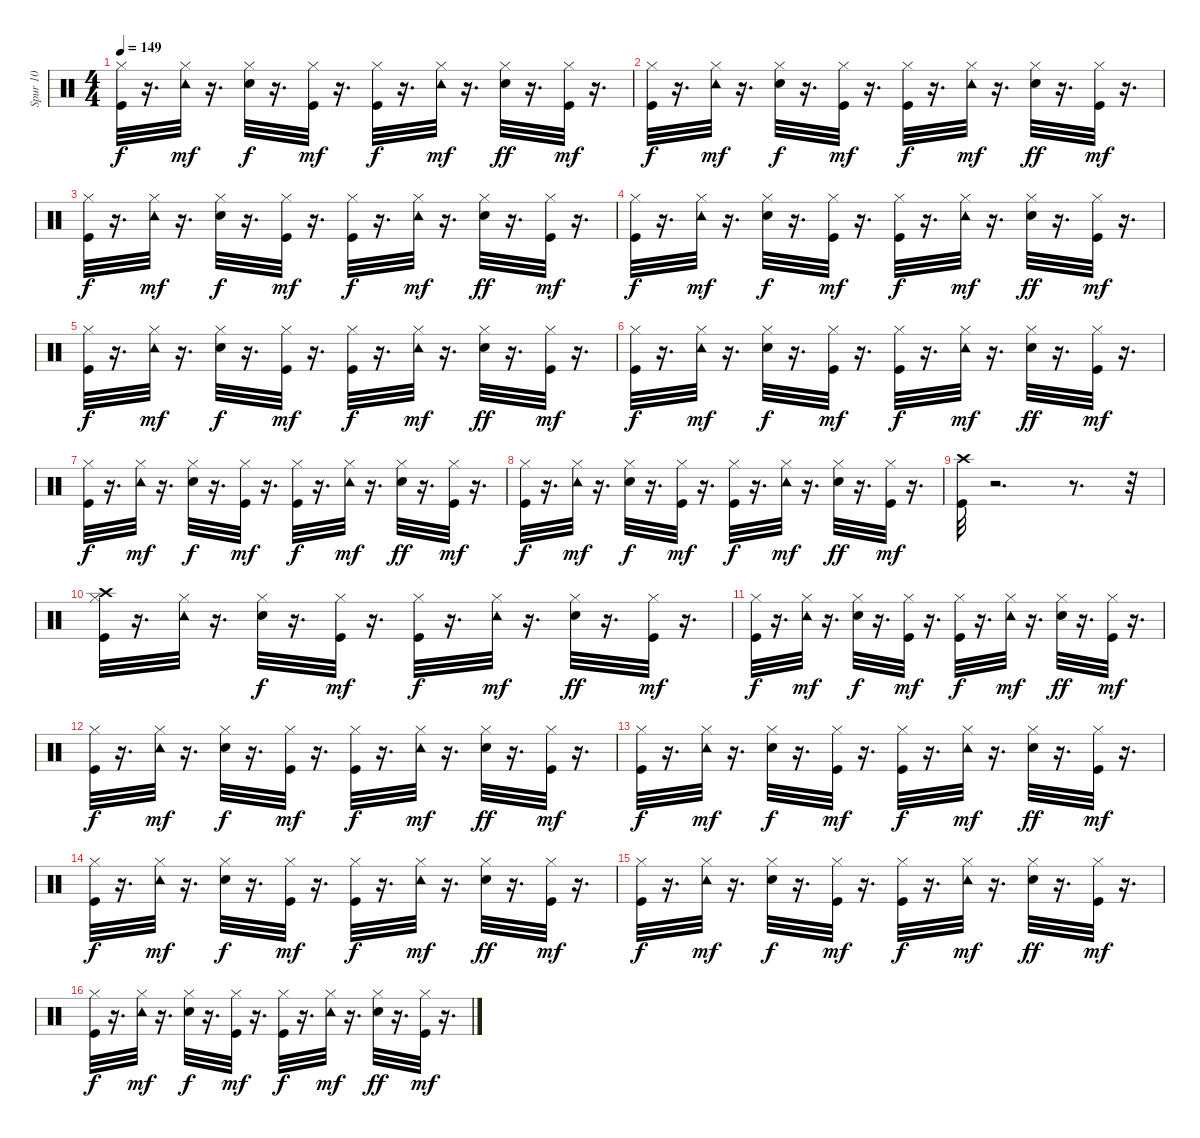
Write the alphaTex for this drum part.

\track ("Spur 10" "Spur 10") {instrument percussion}
\staff {score}
\articulation defaults
\ts (4 4)
\tempo 149
\clef neutral
\ks c
("Kick (hit)" "Hi-Hat (closed)").32{dy f} r.16{d} ("Hi-Hat (closed)" "Tambourine (hit)").32{dy mf} r.16{d} ("Snare (hit) 2" "Hi-Hat (closed)").32{dy f} r.16{d} ("Kick (hit)" "Hi-Hat (closed)").32{dy mf} r.16{d} ("Kick (hit)" "Hi-Hat (closed)").32{dy f} r.16{d} ("Hi-Hat (closed)" "Tambourine (hit)").32{dy mf} r.16{d} ("Snare (hit) 2" "Hi-Hat (closed)").32{dy ff} r.16{d} ("Kick (hit)" "Hi-Hat (closed)").32{dy mf} r.16{d} |
("Kick (hit)" "Hi-Hat (closed)").32{dy f} r.16{d} ("Hi-Hat (closed)" "Tambourine (hit)").32{dy mf} r.16{d} ("Snare (hit) 2" "Hi-Hat (closed)").32{dy f} r.16{d} ("Kick (hit)" "Hi-Hat (closed)").32{dy mf} r.16{d} ("Kick (hit)" "Hi-Hat (closed)").32{dy f} r.16{d} ("Hi-Hat (closed)" "Tambourine (hit)").32{dy mf} r.16{d} ("Snare (hit) 2" "Hi-Hat (closed)").32{dy ff} r.16{d} ("Kick (hit)" "Hi-Hat (closed)").32{dy mf} r.16{d} |
("Kick (hit)" "Hi-Hat (closed)").32{dy f} r.16{d} ("Hi-Hat (closed)" "Tambourine (hit)").32{dy mf} r.16{d} ("Snare (hit) 2" "Hi-Hat (closed)").32{dy f} r.16{d} ("Kick (hit)" "Hi-Hat (closed)").32{dy mf} r.16{d} ("Kick (hit)" "Hi-Hat (closed)").32{dy f} r.16{d} ("Hi-Hat (closed)" "Tambourine (hit)").32{dy mf} r.16{d} ("Snare (hit) 2" "Hi-Hat (closed)").32{dy ff} r.16{d} ("Kick (hit)" "Hi-Hat (closed)").32{dy mf} r.16{d} |
("Kick (hit)" "Hi-Hat (closed)").32{dy f} r.16{d} ("Hi-Hat (closed)" "Tambourine (hit)").32{dy mf} r.16{d} ("Snare (hit) 2" "Hi-Hat (closed)").32{dy f} r.16{d} ("Kick (hit)" "Hi-Hat (closed)").32{dy mf} r.16{d} ("Kick (hit)" "Hi-Hat (closed)").32{dy f} r.16{d} ("Hi-Hat (closed)" "Tambourine (hit)").32{dy mf} r.16{d} ("Snare (hit) 2" "Hi-Hat (closed)").32{dy ff} r.16{d} ("Kick (hit)" "Hi-Hat (closed)").32{dy mf} r.16{d} |
("Kick (hit)" "Hi-Hat (closed)").32{dy f} r.16{d} ("Hi-Hat (closed)" "Tambourine (hit)").32{dy mf} r.16{d} ("Snare (hit) 2" "Hi-Hat (closed)").32{dy f} r.16{d} ("Kick (hit)" "Hi-Hat (closed)").32{dy mf} r.16{d} ("Kick (hit)" "Hi-Hat (closed)").32{dy f} r.16{d} ("Hi-Hat (closed)" "Tambourine (hit)").32{dy mf} r.16{d} ("Snare (hit) 2" "Hi-Hat (closed)").32{dy ff} r.16{d} ("Kick (hit)" "Hi-Hat (closed)").32{dy mf} r.16{d} |
("Kick (hit)" "Hi-Hat (closed)").32{dy f} r.16{d} ("Hi-Hat (closed)" "Tambourine (hit)").32{dy mf} r.16{d} ("Snare (hit) 2" "Hi-Hat (closed)").32{dy f} r.16{d} ("Kick (hit)" "Hi-Hat (closed)").32{dy mf} r.16{d} ("Kick (hit)" "Hi-Hat (closed)").32{dy f} r.16{d} ("Hi-Hat (closed)" "Tambourine (hit)").32{dy mf} r.16{d} ("Snare (hit) 2" "Hi-Hat (closed)").32{dy ff} r.16{d} ("Kick (hit)" "Hi-Hat (closed)").32{dy mf} r.16{d} |
("Kick (hit)" "Hi-Hat (closed)").32{dy f} r.16{d} ("Hi-Hat (closed)" "Tambourine (hit)").32{dy mf} r.16{d} ("Snare (hit) 2" "Hi-Hat (closed)").32{dy f} r.16{d} ("Kick (hit)" "Hi-Hat (closed)").32{dy mf} r.16{d} ("Kick (hit)" "Hi-Hat (closed)").32{dy f} r.16{d} ("Hi-Hat (closed)" "Tambourine (hit)").32{dy mf} r.16{d} ("Snare (hit) 2" "Hi-Hat (closed)").32{dy ff} r.16{d} ("Kick (hit)" "Hi-Hat (closed)").32{dy mf} r.16{d} |
("Kick (hit)" "Hi-Hat (closed)").32{dy f} r.16{d} ("Hi-Hat (closed)" "Tambourine (hit)").32{dy mf} r.16{d} ("Snare (hit) 2" "Hi-Hat (closed)").32{dy f} r.16{d} ("Kick (hit)" "Hi-Hat (closed)").32{dy mf} r.16{d} ("Kick (hit)" "Hi-Hat (closed)").32{dy f} r.16{d} ("Hi-Hat (closed)" "Tambourine (hit)").32{dy mf} r.16{d} ("Snare (hit) 2" "Hi-Hat (closed)").32{dy ff} r.16{d} ("Kick (hit)" "Hi-Hat (closed)").32{dy mf} r.16{d} |
("Kick (hit)" "Crash high (hit)").32 r.2{d} r.8{d} r.32 |
("Kick (hit)" "Hi-Hat (closed)" "Crash high (hit)").32 r.16{d} ("Hi-Hat (closed)" "Tambourine (hit)").32 r.16{d} ("Snare (hit) 2" "Hi-Hat (closed)").32{dy f} r.16{d} ("Kick (hit)" "Hi-Hat (closed)").32{dy mf} r.16{d} ("Kick (hit)" "Hi-Hat (closed)").32{dy f} r.16{d} ("Hi-Hat (closed)" "Tambourine (hit)").32{dy mf} r.16{d} ("Snare (hit) 2" "Hi-Hat (closed)").32{dy ff} r.16{d} ("Kick (hit)" "Hi-Hat (closed)").32{dy mf} r.16{d} |
("Kick (hit)" "Hi-Hat (closed)").32{dy f} r.16{d} ("Hi-Hat (closed)" "Tambourine (hit)").32{dy mf} r.16{d} ("Snare (hit) 2" "Hi-Hat (closed)").32{dy f} r.16{d} ("Kick (hit)" "Hi-Hat (closed)").32{dy mf} r.16{d} ("Kick (hit)" "Hi-Hat (closed)").32{dy f} r.16{d} ("Hi-Hat (closed)" "Tambourine (hit)").32{dy mf} r.16{d} ("Snare (hit) 2" "Hi-Hat (closed)").32{dy ff} r.16{d} ("Kick (hit)" "Hi-Hat (closed)").32{dy mf} r.16{d} |
("Kick (hit)" "Hi-Hat (closed)").32{dy f} r.16{d} ("Hi-Hat (closed)" "Tambourine (hit)").32{dy mf} r.16{d} ("Snare (hit) 2" "Hi-Hat (closed)").32{dy f} r.16{d} ("Kick (hit)" "Hi-Hat (closed)").32{dy mf} r.16{d} ("Kick (hit)" "Hi-Hat (closed)").32{dy f} r.16{d} ("Hi-Hat (closed)" "Tambourine (hit)").32{dy mf} r.16{d} ("Snare (hit) 2" "Hi-Hat (closed)").32{dy ff} r.16{d} ("Kick (hit)" "Hi-Hat (closed)").32{dy mf} r.16{d} |
("Kick (hit)" "Hi-Hat (closed)").32{dy f} r.16{d} ("Hi-Hat (closed)" "Tambourine (hit)").32{dy mf} r.16{d} ("Snare (hit) 2" "Hi-Hat (closed)").32{dy f} r.16{d} ("Kick (hit)" "Hi-Hat (closed)").32{dy mf} r.16{d} ("Kick (hit)" "Hi-Hat (closed)").32{dy f} r.16{d} ("Hi-Hat (closed)" "Tambourine (hit)").32{dy mf} r.16{d} ("Snare (hit) 2" "Hi-Hat (closed)").32{dy ff} r.16{d} ("Kick (hit)" "Hi-Hat (closed)").32{dy mf} r.16{d} |
("Kick (hit)" "Hi-Hat (closed)").32{dy f} r.16{d} ("Hi-Hat (closed)" "Tambourine (hit)").32{dy mf} r.16{d} ("Snare (hit) 2" "Hi-Hat (closed)").32{dy f} r.16{d} ("Kick (hit)" "Hi-Hat (closed)").32{dy mf} r.16{d} ("Kick (hit)" "Hi-Hat (closed)").32{dy f} r.16{d} ("Hi-Hat (closed)" "Tambourine (hit)").32{dy mf} r.16{d} ("Snare (hit) 2" "Hi-Hat (closed)").32{dy ff} r.16{d} ("Kick (hit)" "Hi-Hat (closed)").32{dy mf} r.16{d} |
("Kick (hit)" "Hi-Hat (closed)").32{dy f} r.16{d} ("Hi-Hat (closed)" "Tambourine (hit)").32{dy mf} r.16{d} ("Snare (hit) 2" "Hi-Hat (closed)").32{dy f} r.16{d} ("Kick (hit)" "Hi-Hat (closed)").32{dy mf} r.16{d} ("Kick (hit)" "Hi-Hat (closed)").32{dy f} r.16{d} ("Hi-Hat (closed)" "Tambourine (hit)").32{dy mf} r.16{d} ("Snare (hit) 2" "Hi-Hat (closed)").32{dy ff} r.16{d} ("Kick (hit)" "Hi-Hat (closed)").32{dy mf} r.16{d} |
("Kick (hit)" "Hi-Hat (closed)").32{dy f} r.16{d} ("Hi-Hat (closed)" "Tambourine (hit)").32{dy mf} r.16{d} ("Snare (hit) 2" "Hi-Hat (closed)").32{dy f} r.16{d} ("Kick (hit)" "Hi-Hat (closed)").32{dy mf} r.16{d} ("Kick (hit)" "Hi-Hat (closed)").32{dy f} r.16{d} ("Hi-Hat (closed)" "Tambourine (hit)").32{dy mf} r.16{d} ("Snare (hit) 2" "Hi-Hat (closed)").32{dy ff} r.16{d} ("Kick (hit)" "Hi-Hat (closed)").32{dy mf} r.16{d}
